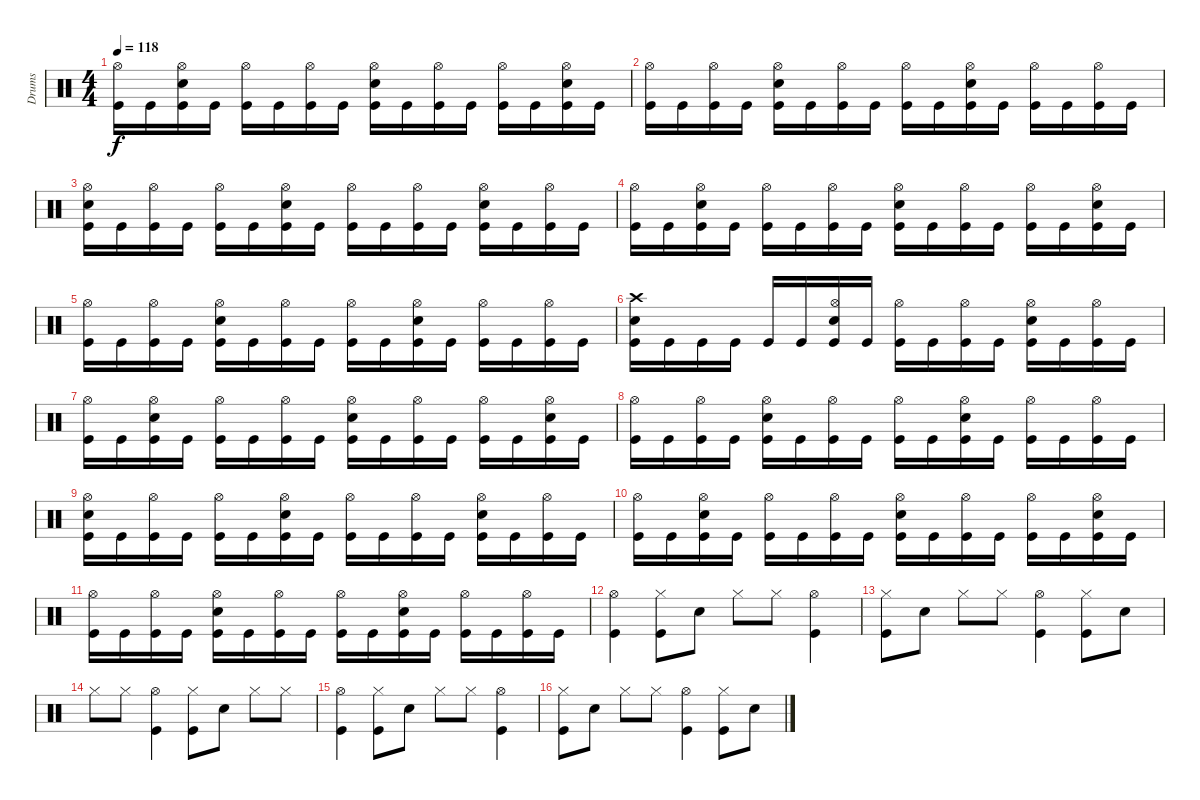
\track ("Drums" "Drums") {instrument percussion}
\staff {score}
\articulation defaults
\ts (4 4)
\tempo 118
\clef neutral
\ks c
("Kick (hit)" "Hi-Hat (open)").16{dy f} "Kick (hit)".16 ("Kick (hit)" "Snare (hit) 2" "Hi-Hat (open)").16 "Kick (hit)".16 ("Kick (hit)" "Hi-Hat (open)").16 "Kick (hit)".16 ("Kick (hit)" "Hi-Hat (open)").16 "Kick (hit)".16 ("Kick (hit)" "Snare (hit) 2" "Hi-Hat (open)").16 "Kick (hit)".16 ("Kick (hit)" "Hi-Hat (open)").16 "Kick (hit)".16 ("Kick (hit)" "Hi-Hat (open)").16 "Kick (hit)".16 ("Kick (hit)" "Snare (hit) 2" "Hi-Hat (open)").16 "Kick (hit)".16 |
("Kick (hit)" "Hi-Hat (open)").16 "Kick (hit)".16 ("Kick (hit)" "Hi-Hat (open)").16 "Kick (hit)".16 ("Kick (hit)" "Snare (hit) 2" "Hi-Hat (open)").16 "Kick (hit)".16 ("Kick (hit)" "Hi-Hat (open)").16 "Kick (hit)".16 ("Kick (hit)" "Hi-Hat (open)").16 "Kick (hit)".16 ("Kick (hit)" "Snare (hit) 2" "Hi-Hat (open)").16 "Kick (hit)".16 ("Kick (hit)" "Hi-Hat (open)").16 "Kick (hit)".16 ("Kick (hit)" "Hi-Hat (open)").16 "Kick (hit)".16 |
("Kick (hit)" "Snare (hit) 2" "Hi-Hat (open)").16 "Kick (hit)".16 ("Kick (hit)" "Hi-Hat (open)").16 "Kick (hit)".16 ("Kick (hit)" "Hi-Hat (open)").16 "Kick (hit)".16 ("Kick (hit)" "Snare (hit) 2" "Hi-Hat (open)").16 "Kick (hit)".16 ("Kick (hit)" "Hi-Hat (open)").16 "Kick (hit)".16 ("Kick (hit)" "Hi-Hat (open)").16 "Kick (hit)".16 ("Kick (hit)" "Snare (hit) 2" "Hi-Hat (open)").16 "Kick (hit)".16 ("Kick (hit)" "Hi-Hat (open)").16 "Kick (hit)".16 |
("Kick (hit)" "Hi-Hat (open)").16 "Kick (hit)".16 ("Kick (hit)" "Snare (hit) 2" "Hi-Hat (open)").16 "Kick (hit)".16 ("Kick (hit)" "Hi-Hat (open)").16 "Kick (hit)".16 ("Kick (hit)" "Hi-Hat (open)").16 "Kick (hit)".16 ("Kick (hit)" "Snare (hit) 2" "Hi-Hat (open)").16 "Kick (hit)".16 ("Kick (hit)" "Hi-Hat (open)").16 "Kick (hit)".16 ("Kick (hit)" "Hi-Hat (open)").16 "Kick (hit)".16 ("Kick (hit)" "Snare (hit) 2" "Hi-Hat (open)").16 "Kick (hit)".16 |
("Kick (hit)" "Hi-Hat (open)").16 "Kick (hit)".16 ("Kick (hit)" "Hi-Hat (open)").16 "Kick (hit)".16 ("Kick (hit)" "Snare (hit) 2" "Hi-Hat (open)").16 "Kick (hit)".16 ("Kick (hit)" "Hi-Hat (open)").16 "Kick (hit)".16 ("Kick (hit)" "Hi-Hat (open)").16 "Kick (hit)".16 ("Kick (hit)" "Snare (hit) 2" "Hi-Hat (open)").16 "Kick (hit)".16 ("Kick (hit)" "Hi-Hat (open)").16 "Kick (hit)".16 ("Kick (hit)" "Hi-Hat (open)").16 "Kick (hit)".16 |
("Kick (hit)" "Snare (hit) 2" "Crash high (hit)").16 "Kick (hit)".16 "Kick (hit)".16 "Kick (hit)".16 "Kick (hit)".16 "Kick (hit)".16 ("Kick (hit)" "Snare (hit) 2" "Hi-Hat (open)").16 "Kick (hit)".16 ("Kick (hit)" "Hi-Hat (open)").16 "Kick (hit)".16 ("Kick (hit)" "Hi-Hat (open)").16 "Kick (hit)".16 ("Kick (hit)" "Snare (hit) 2" "Hi-Hat (open)").16 "Kick (hit)".16 ("Kick (hit)" "Hi-Hat (open)").16 "Kick (hit)".16 |
("Kick (hit)" "Hi-Hat (open)").16 "Kick (hit)".16 ("Kick (hit)" "Snare (hit) 2" "Hi-Hat (open)").16 "Kick (hit)".16 ("Kick (hit)" "Hi-Hat (open)").16 "Kick (hit)".16 ("Kick (hit)" "Hi-Hat (open)").16 "Kick (hit)".16 ("Kick (hit)" "Snare (hit) 2" "Hi-Hat (open)").16 "Kick (hit)".16 ("Kick (hit)" "Hi-Hat (open)").16 "Kick (hit)".16 ("Kick (hit)" "Hi-Hat (open)").16 "Kick (hit)".16 ("Kick (hit)" "Snare (hit) 2" "Hi-Hat (open)").16 "Kick (hit)".16 |
("Kick (hit)" "Hi-Hat (open)").16 "Kick (hit)".16 ("Kick (hit)" "Hi-Hat (open)").16 "Kick (hit)".16 ("Kick (hit)" "Snare (hit) 2" "Hi-Hat (open)").16 "Kick (hit)".16 ("Kick (hit)" "Hi-Hat (open)").16 "Kick (hit)".16 ("Kick (hit)" "Hi-Hat (open)").16 "Kick (hit)".16 ("Kick (hit)" "Snare (hit) 2" "Hi-Hat (open)").16 "Kick (hit)".16 ("Kick (hit)" "Hi-Hat (open)").16 "Kick (hit)".16 ("Kick (hit)" "Hi-Hat (open)").16 "Kick (hit)".16 |
("Kick (hit)" "Snare (hit) 2" "Hi-Hat (open)").16 "Kick (hit)".16 ("Kick (hit)" "Hi-Hat (open)").16 "Kick (hit)".16 ("Kick (hit)" "Hi-Hat (open)").16 "Kick (hit)".16 ("Kick (hit)" "Snare (hit) 2" "Hi-Hat (open)").16 "Kick (hit)".16 ("Kick (hit)" "Hi-Hat (open)").16 "Kick (hit)".16 ("Kick (hit)" "Hi-Hat (open)").16 "Kick (hit)".16 ("Kick (hit)" "Snare (hit) 2" "Hi-Hat (open)").16 "Kick (hit)".16 ("Kick (hit)" "Hi-Hat (open)").16 "Kick (hit)".16 |
("Kick (hit)" "Hi-Hat (open)").16 "Kick (hit)".16 ("Kick (hit)" "Snare (hit) 2" "Hi-Hat (open)").16 "Kick (hit)".16 ("Kick (hit)" "Hi-Hat (open)").16 "Kick (hit)".16 ("Kick (hit)" "Hi-Hat (open)").16 "Kick (hit)".16 ("Kick (hit)" "Snare (hit) 2" "Hi-Hat (open)").16 "Kick (hit)".16 ("Kick (hit)" "Hi-Hat (open)").16 "Kick (hit)".16 ("Kick (hit)" "Hi-Hat (open)").16 "Kick (hit)".16 ("Kick (hit)" "Snare (hit) 2" "Hi-Hat (open)").16 "Kick (hit)".16 |
("Kick (hit)" "Hi-Hat (open)").16 "Kick (hit)".16 ("Kick (hit)" "Hi-Hat (open)").16 "Kick (hit)".16 ("Kick (hit)" "Snare (hit) 2" "Hi-Hat (open)").16 "Kick (hit)".16 ("Kick (hit)" "Hi-Hat (open)").16 "Kick (hit)".16 ("Kick (hit)" "Hi-Hat (open)").16 "Kick (hit)".16 ("Kick (hit)" "Snare (hit) 2" "Hi-Hat (open)").16 "Kick (hit)".16 ("Kick (hit)" "Hi-Hat (open)").16 "Kick (hit)".16 ("Kick (hit)" "Hi-Hat (open)").16 "Kick (hit)".16 |
("Kick (hit)" "Hi-Hat (open)").4 ("Kick (hit)" "Hi-Hat (closed)").8 "Snare (hit) 2".8 "Hi-Hat (closed)".8 "Hi-Hat (closed)".8 ("Kick (hit)" "Hi-Hat (open)").4 |
("Kick (hit)" "Hi-Hat (closed)").8 "Snare (hit) 2".8 "Hi-Hat (closed)".8 "Hi-Hat (closed)".8 ("Kick (hit)" "Hi-Hat (open)").4 ("Kick (hit)" "Hi-Hat (closed)").8 "Snare (hit) 2".8 |
"Hi-Hat (closed)".8 "Hi-Hat (closed)".8 ("Kick (hit)" "Hi-Hat (open)").4 ("Kick (hit)" "Hi-Hat (closed)").8 "Snare (hit) 2".8 "Hi-Hat (closed)".8 "Hi-Hat (closed)".8 |
("Kick (hit)" "Hi-Hat (open)").4 ("Kick (hit)" "Hi-Hat (closed)").8 "Snare (hit) 2".8 "Hi-Hat (closed)".8 "Hi-Hat (closed)".8 ("Kick (hit)" "Hi-Hat (open)").4 |
("Kick (hit)" "Hi-Hat (closed)").8 "Snare (hit) 2".8 "Hi-Hat (closed)".8 "Hi-Hat (closed)".8 ("Kick (hit)" "Hi-Hat (open)").4 ("Kick (hit)" "Hi-Hat (closed)").8 "Snare (hit) 2".8
